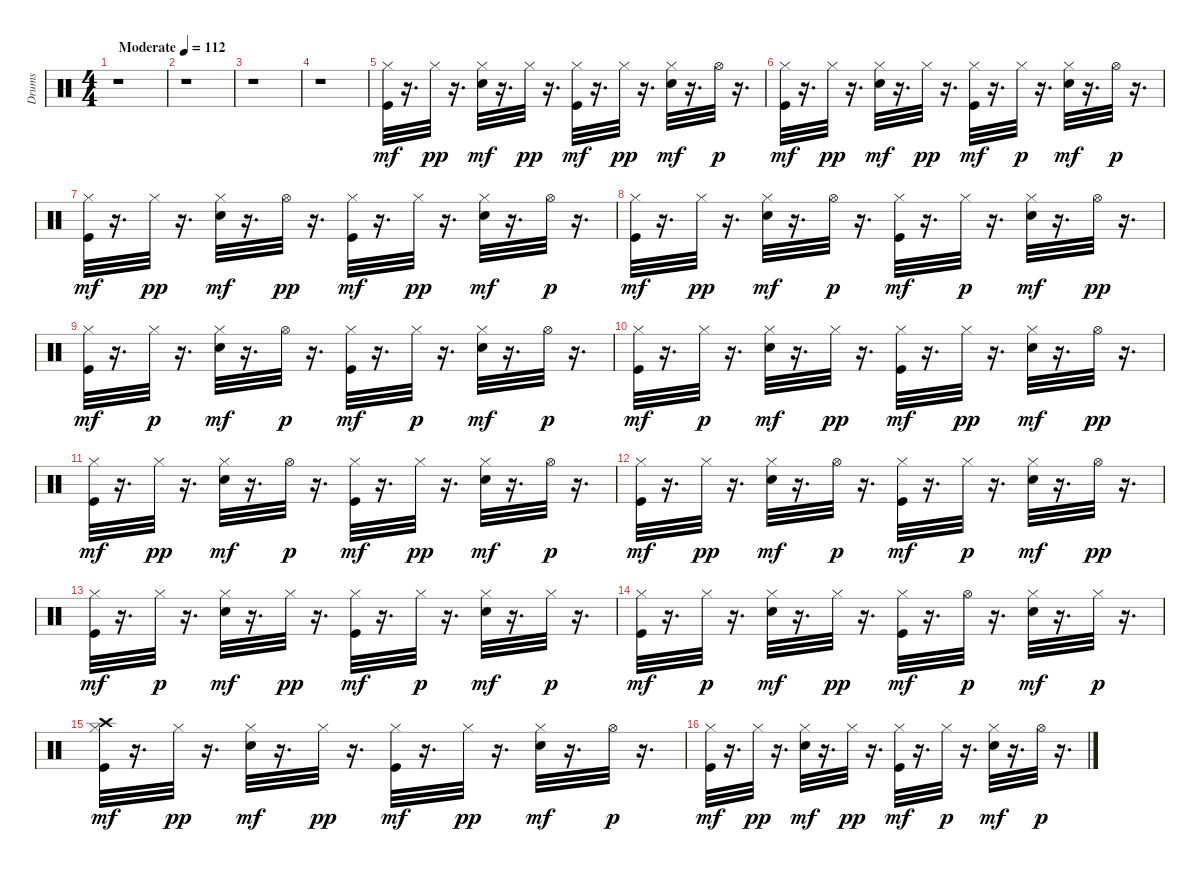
\track ("Drums" "Drums") {instrument percussion}
\staff {score}
\articulation defaults
\ts (4 4)
\tempo (112 "Moderate")
\clef neutral
\ks c
r.1{dy mf} |
r.1 |
r.1 |
r.1 |
("Hi-Hat (closed)" "Kick (hit)").32 r.16{d} "Hi-Hat (closed)".32{dy pp} r.16{d} ("Hi-Hat (closed)" "Electric Snare (hit)").32{dy mf} r.16{d} "Hi-Hat (closed)".32{dy pp} r.16{d} ("Hi-Hat (closed)" "Kick (hit)").32{dy mf} r.16{d} "Hi-Hat (closed)".32{dy pp} r.16{d} ("Hi-Hat (closed)" "Electric Snare (hit)").32{dy mf} r.16{d} "Hi-Hat (open)".32{dy p} r.16{d} |
("Hi-Hat (closed)" "Kick (hit)").32{dy mf} r.16{d} "Hi-Hat (closed)".32{dy pp} r.16{d} ("Hi-Hat (closed)" "Electric Snare (hit)").32{dy mf} r.16{d} "Hi-Hat (closed)".32{dy pp} r.16{d} ("Hi-Hat (closed)" "Kick (hit)").32{dy mf} r.16{d} "Hi-Hat (closed)".32{dy p} r.16{d} ("Hi-Hat (closed)" "Electric Snare (hit)").32{dy mf} r.16{d} "Hi-Hat (open)".32{dy p} r.16{d} |
("Hi-Hat (closed)" "Kick (hit)").32{dy mf} r.16{d} "Hi-Hat (closed)".32{dy pp} r.16{d} ("Hi-Hat (closed)" "Electric Snare (hit)").32{dy mf} r.16{d} "Hi-Hat (open)".32{dy pp} r.16{d} ("Hi-Hat (closed)" "Kick (hit)").32{dy mf} r.16{d} "Hi-Hat (closed)".32{dy pp} r.16{d} ("Hi-Hat (closed)" "Electric Snare (hit)").32{dy mf} r.16{d} "Hi-Hat (open)".32{dy p} r.16{d} |
("Hi-Hat (closed)" "Kick (hit)").32{dy mf} r.16{d} "Hi-Hat (closed)".32{dy pp} r.16{d} ("Hi-Hat (closed)" "Electric Snare (hit)").32{dy mf} r.16{d} "Hi-Hat (open)".32{dy p} r.16{d} ("Hi-Hat (closed)" "Kick (hit)").32{dy mf} r.16{d} "Hi-Hat (closed)".32{dy p} r.16{d} ("Hi-Hat (closed)" "Electric Snare (hit)").32{dy mf} r.16{d} "Hi-Hat (open)".32{dy pp} r.16{d} |
("Hi-Hat (closed)" "Kick (hit)").32{dy mf} r.16{d} "Hi-Hat (closed)".32{dy p} r.16{d} ("Hi-Hat (closed)" "Electric Snare (hit)").32{dy mf} r.16{d} "Hi-Hat (open)".32{dy p} r.16{d} ("Hi-Hat (closed)" "Kick (hit)").32{dy mf} r.16{d} "Hi-Hat (closed)".32{dy p} r.16{d} ("Hi-Hat (closed)" "Electric Snare (hit)").32{dy mf} r.16{d} "Hi-Hat (open)".32{dy p} r.16{d} |
("Hi-Hat (closed)" "Kick (hit)").32{dy mf} r.16{d} "Hi-Hat (closed)".32{dy p} r.16{d} ("Hi-Hat (closed)" "Electric Snare (hit)").32{dy mf} r.16{d} "Hi-Hat (closed)".32{dy pp} r.16{d} ("Hi-Hat (closed)" "Kick (hit)").32{dy mf} r.16{d} "Hi-Hat (closed)".32{dy pp} r.16{d} ("Hi-Hat (closed)" "Electric Snare (hit)").32{dy mf} r.16{d} "Hi-Hat (open)".32{dy pp} r.16{d} |
("Hi-Hat (closed)" "Kick (hit)").32{dy mf} r.16{d} "Hi-Hat (closed)".32{dy pp} r.16{d} ("Hi-Hat (closed)" "Electric Snare (hit)").32{dy mf} r.16{d} "Hi-Hat (open)".32{dy p} r.16{d} ("Hi-Hat (closed)" "Kick (hit)").32{dy mf} r.16{d} "Hi-Hat (closed)".32{dy pp} r.16{d} ("Hi-Hat (closed)" "Electric Snare (hit)").32{dy mf} r.16{d} "Hi-Hat (open)".32{dy p} r.16{d} |
("Hi-Hat (closed)" "Kick (hit)").32{dy mf} r.16{d} "Hi-Hat (closed)".32{dy pp} r.16{d} ("Hi-Hat (closed)" "Electric Snare (hit)").32{dy mf} r.16{d} "Hi-Hat (open)".32{dy p} r.16{d} ("Hi-Hat (closed)" "Kick (hit)").32{dy mf} r.16{d} "Hi-Hat (closed)".32{dy p} r.16{d} ("Hi-Hat (closed)" "Electric Snare (hit)").32{dy mf} r.16{d} "Hi-Hat (open)".32{dy pp} r.16{d} |
("Hi-Hat (closed)" "Kick (hit)").32{dy mf} r.16{d} "Hi-Hat (closed)".32{dy p} r.16{d} ("Hi-Hat (closed)" "Electric Snare (hit)").32{dy mf} r.16{d} "Hi-Hat (closed)".32{dy pp} r.16{d} ("Hi-Hat (closed)" "Kick (hit)").32{dy mf} r.16{d} "Hi-Hat (closed)".32{dy p} r.16{d} ("Hi-Hat (closed)" "Electric Snare (hit)").32{dy mf} r.16{d} "Hi-Hat (closed)".32{dy p} r.16{d} |
("Hi-Hat (closed)" "Kick (hit)").32{dy mf} r.16{d} "Hi-Hat (closed)".32{dy p} r.16{d} ("Hi-Hat (closed)" "Electric Snare (hit)").32{dy mf} r.16{d} "Hi-Hat (closed)".32{dy pp} r.16{d} ("Hi-Hat (closed)" "Kick (hit)").32{dy mf} r.16{d} "Hi-Hat (open)".32{dy p} r.16{d} ("Hi-Hat (closed)" "Electric Snare (hit)").32{dy mf} r.16{d} "Hi-Hat (closed)".32{dy p} r.16{d} |
("Crash high (hit)" "Hi-Hat (closed)" "Kick (hit)").32{dy mf} r.16{d} "Hi-Hat (closed)".32{dy pp} r.16{d} ("Hi-Hat (closed)" "Electric Snare (hit)").32{dy mf} r.16{d} "Hi-Hat (closed)".32{dy pp} r.16{d} ("Hi-Hat (closed)" "Kick (hit)").32{dy mf} r.16{d} "Hi-Hat (closed)".32{dy pp} r.16{d} ("Hi-Hat (closed)" "Electric Snare (hit)").32{dy mf} r.16{d} "Hi-Hat (open)".32{dy p} r.16{d} |
("Hi-Hat (closed)" "Kick (hit)").32{dy mf} r.16{d} "Hi-Hat (closed)".32{dy pp} r.16{d} ("Hi-Hat (closed)" "Electric Snare (hit)").32{dy mf} r.16{d} "Hi-Hat (closed)".32{dy pp} r.16{d} ("Hi-Hat (closed)" "Kick (hit)").32{dy mf} r.16{d} "Hi-Hat (closed)".32{dy p} r.16{d} ("Hi-Hat (closed)" "Electric Snare (hit)").32{dy mf} r.16{d} "Hi-Hat (open)".32{dy p} r.16{d}
